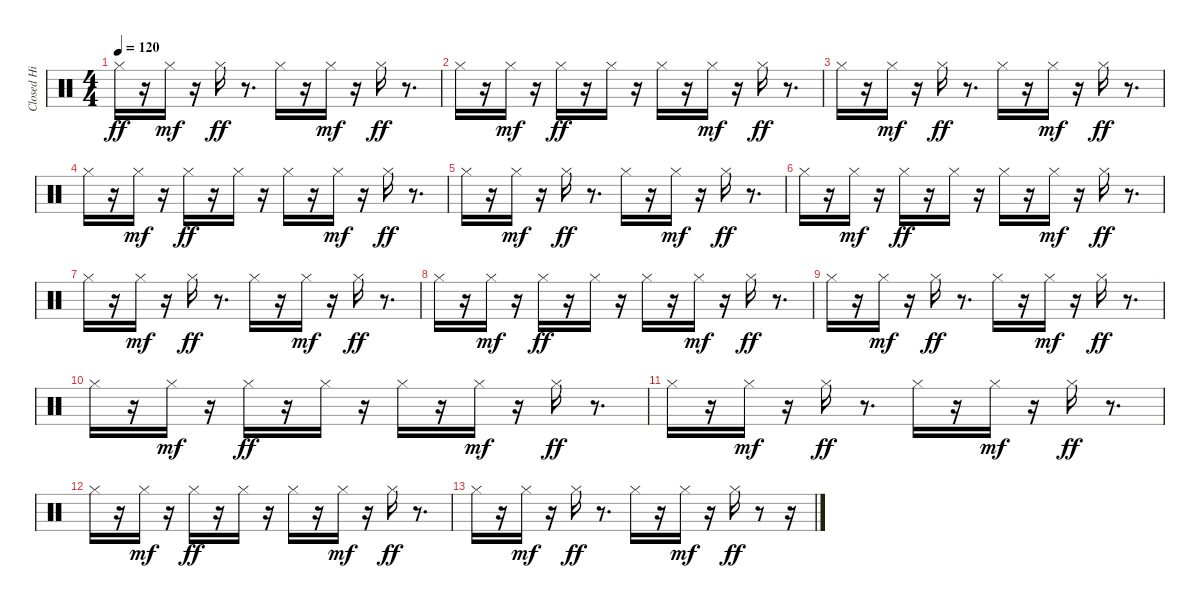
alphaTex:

\track ("Closed Hi Hat       " "Closed Hi ") {instrument percussion}
\staff {score}
\articulation defaults
\ts (4 4)
\tempo 120
\clef neutral
\ks c "Hi-Hat (closed)".16{dy ff}
r.16 "Hi-Hat (closed)".16{dy mf} r.16 "Hi-Hat (closed)".16{dy ff} r.8{d} "Hi-Hat (closed)".16 r.16 "Hi-Hat (closed)".16{dy mf} r.16 "Hi-Hat (closed)".16{dy ff} r.8{d} |
"Hi-Hat (closed)".16 r.16 "Hi-Hat (closed)".16{dy mf} r.16 "Hi-Hat (closed)".16{dy ff} r.16 "Hi-Hat (closed)".16 r.16 "Hi-Hat (closed)".16 r.16 "Hi-Hat (closed)".16{dy mf} r.16 "Hi-Hat (closed)".16{dy ff} r.8{d} |
"Hi-Hat (closed)".16 r.16 "Hi-Hat (closed)".16{dy mf} r.16 "Hi-Hat (closed)".16{dy ff} r.8{d} "Hi-Hat (closed)".16 r.16 "Hi-Hat (closed)".16{dy mf} r.16 "Hi-Hat (closed)".16{dy ff} r.8{d} |
"Hi-Hat (closed)".16{volume 12} r.16 "Hi-Hat (closed)".16{dy mf volume 12} r.16 "Hi-Hat (closed)".16{dy ff volume 12} r.16 "Hi-Hat (closed)".16{volume 12} r.16 "Hi-Hat (closed)".16{volume 12} r.16 "Hi-Hat (closed)".16{dy mf volume 12} r.16 "Hi-Hat (closed)".16{dy ff volume 11} r.8{d} |
"Hi-Hat (closed)".16{volume 11} r.16 "Hi-Hat (closed)".16{dy mf volume 11} r.16 "Hi-Hat (closed)".16{dy ff volume 11} r.8{d} "Hi-Hat (closed)".16{volume 10} r.16 "Hi-Hat (closed)".16{dy mf volume 10} r.16 "Hi-Hat (closed)".16{dy ff volume 10} r.8{d} |
"Hi-Hat (closed)".16{volume 10} r.16 "Hi-Hat (closed)".16{dy mf volume 10} r.16 "Hi-Hat (closed)".16{dy ff volume 10} r.16 "Hi-Hat (closed)".16{volume 9} r.16 "Hi-Hat (closed)".16{volume 9} r.16 "Hi-Hat (closed)".16{dy mf volume 9} r.16 "Hi-Hat (closed)".16{dy ff volume 9} r.8{d} |
"Hi-Hat (closed)".16{volume 9} r.16 "Hi-Hat (closed)".16{dy mf volume 8} r.16 "Hi-Hat (closed)".16{dy ff volume 8} r.8{d} "Hi-Hat (closed)".16{volume 8} r.16 "Hi-Hat (closed)".16{dy mf volume 8} r.16 "Hi-Hat (closed)".16{dy ff volume 8} r.8{d} |
"Hi-Hat (closed)".16{volume 7} r.16 "Hi-Hat (closed)".16{dy mf volume 7} r.16 "Hi-Hat (closed)".16{dy ff volume 7} r.16 "Hi-Hat (closed)".16{volume 7} r.16 "Hi-Hat (closed)".16{volume 7} r.16 "Hi-Hat (closed)".16{dy mf volume 7} r.16 "Hi-Hat (closed)".16{dy ff volume 6} r.8{d} |
"Hi-Hat (closed)".16{volume 6} r.16 "Hi-Hat (closed)".16{dy mf volume 6} r.16 "Hi-Hat (closed)".16{dy ff volume 6} r.8{d} "Hi-Hat (closed)".16{volume 6} r.16 "Hi-Hat (closed)".16{dy mf volume 5} r.16 "Hi-Hat (closed)".16{dy ff volume 5} r.8{d} |
"Hi-Hat (closed)".16{volume 5} r.16 "Hi-Hat (closed)".16{dy mf volume 5} r.16 "Hi-Hat (closed)".16{dy ff volume 5} r.16 "Hi-Hat (closed)".16{volume 4} r.16 "Hi-Hat (closed)".16{volume 4} r.16 "Hi-Hat (closed)".16{dy mf volume 4} r.16 "Hi-Hat (closed)".16{dy ff volume 4} r.8{d} |
"Hi-Hat (closed)".16{volume 4} r.16 "Hi-Hat (closed)".16{dy mf volume 4} r.16 "Hi-Hat (closed)".16{dy ff volume 3} r.8{d} "Hi-Hat (closed)".16{volume 3} r.16 "Hi-Hat (closed)".16{dy mf volume 3} r.16 "Hi-Hat (closed)".16{dy ff volume 3} r.8{d} |
"Hi-Hat (closed)".16{volume 2} r.16 "Hi-Hat (closed)".16{dy mf volume 2} r.16 "Hi-Hat (closed)".16{dy ff volume 2} r.16 "Hi-Hat (closed)".16{volume 2} r.16 "Hi-Hat (closed)".16{volume 2} r.16 "Hi-Hat (closed)".16{dy mf volume 2} r.16 "Hi-Hat (closed)".16{dy ff volume 2} r.8{d} |
"Hi-Hat (closed)".16{volume 1} r.16 "Hi-Hat (closed)".16{dy mf volume 1} r.16 "Hi-Hat (closed)".16{dy ff volume 1} r.8{d} "Hi-Hat (closed)".16{volume 0} r.16 "Hi-Hat (closed)".16{dy mf volume 0} r.16 "Hi-Hat (closed)".16{dy ff volume 0} r.8 r.16
